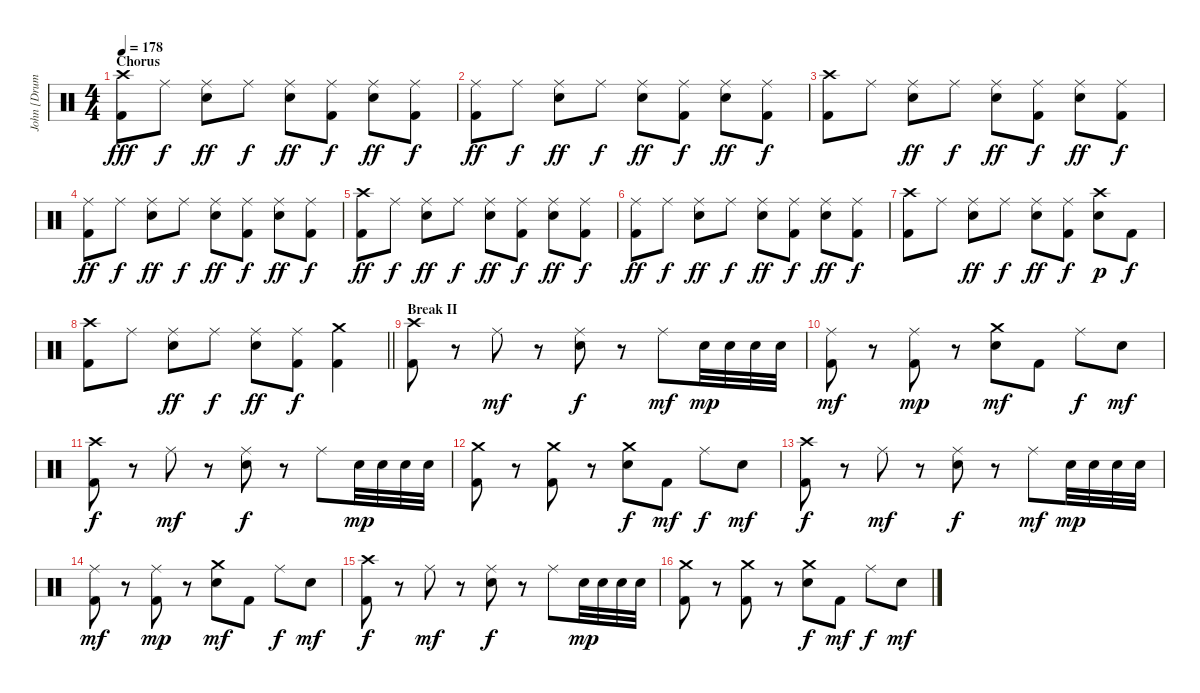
\track ("John [Drums]" "John [Drum") {instrument percussion}
\staff {score}
\articulation defaults
\ts (4 4)
\section ("" "Chorus")
\tempo 178
\clef neutral
\ks c
("Crash high (hit)" "Kick (hit) 2").8{dy fff} "Ride (middle)".8{dy f} ("Ride (middle)" "Electric Snare (hit)").8{dy ff} "Ride (middle)".8{dy f} ("Ride (middle)" "Electric Snare (hit)").8{dy ff} ("Ride (middle)" "Kick (hit) 2").8{dy f} ("Ride (middle)" "Electric Snare (hit)").8{dy ff} ("Ride (middle)" "Kick (hit) 2").8{dy f} |
("Ride (middle)" "Kick (hit) 2").8{dy ff} "Ride (middle)".8{dy f} ("Ride (middle)" "Electric Snare (hit)").8{dy ff} "Ride (middle)".8{dy f} ("Ride (middle)" "Electric Snare (hit)").8{dy ff} ("Ride (middle)" "Kick (hit) 2").8{dy f} ("Ride (middle)" "Electric Snare (hit)").8{dy ff} ("Ride (middle)" "Kick (hit) 2").8{dy f} |
("Crash high (hit)" "Kick (hit) 2").8 "Ride (middle)".8 ("Ride (middle)" "Electric Snare (hit)").8{dy ff} "Ride (middle)".8{dy f} ("Ride (middle)" "Electric Snare (hit)").8{dy ff} ("Ride (middle)" "Kick (hit) 2").8{dy f} ("Ride (middle)" "Electric Snare (hit)").8{dy ff} ("Ride (middle)" "Kick (hit) 2").8{dy f} |
("Ride (middle)" "Kick (hit) 2").8{dy ff} "Ride (middle)".8{dy f} ("Ride (middle)" "Electric Snare (hit)").8{dy ff} "Ride (middle)".8{dy f} ("Ride (middle)" "Electric Snare (hit)").8{dy ff} ("Ride (middle)" "Kick (hit) 2").8{dy f} ("Ride (middle)" "Electric Snare (hit)").8{dy ff} ("Ride (middle)" "Kick (hit) 2").8{dy f} |
("Crash high (hit)" "Kick (hit) 2").8{dy ff} "Ride (middle)".8{dy f} ("Ride (middle)" "Electric Snare (hit)").8{dy ff} "Ride (middle)".8{dy f} ("Ride (middle)" "Electric Snare (hit)").8{dy ff} ("Ride (middle)" "Kick (hit) 2").8{dy f} ("Ride (middle)" "Electric Snare (hit)").8{dy ff} ("Ride (middle)" "Kick (hit) 2").8{dy f} |
("Ride (middle)" "Kick (hit) 2").8{dy ff} "Ride (middle)".8{dy f} ("Ride (middle)" "Electric Snare (hit)").8{dy ff} "Ride (middle)".8{dy f} ("Ride (middle)" "Electric Snare (hit)").8{dy ff} ("Ride (middle)" "Kick (hit) 2").8{dy f} ("Ride (middle)" "Electric Snare (hit)").8{dy ff} ("Ride (middle)" "Kick (hit) 2").8{dy f} |
("Crash high (hit)" "Kick (hit) 2").8 "Ride (middle)".8 ("Ride (middle)" "Electric Snare (hit)").8{dy ff} "Ride (middle)".8{dy f} ("Ride (middle)" "Electric Snare (hit)").8{dy ff} ("Ride (middle)" "Kick (hit) 2").8{dy f} ("Crash high (hit)" "Electric Snare (hit)").8{dy p} "Kick (hit) 2".8{dy f} |
\barLineRight lightlight
("Crash high (hit)" "Kick (hit) 2").8 "Ride (middle)".8 ("Ride (middle)" "Electric Snare (hit)").8{dy ff} "Ride (middle)".8{dy f} ("Ride (middle)" "Electric Snare (hit)").8{dy ff} ("Ride (middle)" "Kick (hit) 2").8{dy f} ("Crash medium (hit)" "Kick (hit) 2").4 |
\section ("" "Break II")
("Crash high (hit)" "Kick (hit) 2").8 r.8 "Ride (middle)".8{dy mf} r.8 ("Ride (middle)" "Electric Snare (hit)").8{dy f} r.8 "Ride (middle)".8{dy mf} "Electric Snare (hit)".32{dy mp} "Electric Snare (hit)".32 "Electric Snare (hit)".32 "Electric Snare (hit)".32 |
("Ride (middle)" "Kick (hit) 2").8{dy mf} r.8 ("Ride (middle)" "Kick (hit) 2").8{dy mp} r.8 ("Crash medium (hit)" "Electric Snare (hit)").8{dy mf} "Kick (hit) 2".8 "Ride (middle)".8{dy f} "Electric Snare (hit)".8{dy mf} |
("Crash high (hit)" "Kick (hit) 2").8{dy f} r.8 "Ride (middle)".8{dy mf} r.8 ("Ride (middle)" "Electric Snare (hit)").8{dy f} r.8 "Ride (middle)".8 "Electric Snare (hit)".32{dy mp} "Electric Snare (hit)".32 "Electric Snare (hit)".32 "Electric Snare (hit)".32 |
("Crash medium (hit)" "Kick (hit) 2").8 r.8 ("Crash medium (hit)" "Kick (hit) 2").8 r.8 ("Crash medium (hit)" "Electric Snare (hit)").8{dy f} "Kick (hit) 2".8{dy mf} "Ride (middle)".8{dy f} "Electric Snare (hit)".8{dy mf} |
("Crash high (hit)" "Kick (hit) 2").8{dy f} r.8 "Ride (middle)".8{dy mf} r.8 ("Ride (middle)" "Electric Snare (hit)").8{dy f} r.8 "Ride (middle)".8{dy mf} "Electric Snare (hit)".32{dy mp} "Electric Snare (hit)".32 "Electric Snare (hit)".32 "Electric Snare (hit)".32 |
("Ride (middle)" "Kick (hit) 2").8{dy mf} r.8 ("Ride (middle)" "Kick (hit) 2").8{dy mp} r.8 ("Crash medium (hit)" "Electric Snare (hit)").8{dy mf} "Kick (hit) 2".8 "Ride (middle)".8{dy f} "Electric Snare (hit)".8{dy mf} |
("Crash high (hit)" "Kick (hit) 2").8{dy f} r.8 "Ride (middle)".8{dy mf} r.8 ("Ride (middle)" "Electric Snare (hit)").8{dy f} r.8 "Ride (middle)".8 "Electric Snare (hit)".32{dy mp} "Electric Snare (hit)".32 "Electric Snare (hit)".32 "Electric Snare (hit)".32 |
("Crash medium (hit)" "Kick (hit) 2").8 r.8 ("Crash medium (hit)" "Kick (hit) 2").8 r.8 ("Crash medium (hit)" "Electric Snare (hit)").8{dy f} "Kick (hit) 2".8{dy mf} "Ride (middle)".8{dy f} "Electric Snare (hit)".8{dy mf}
